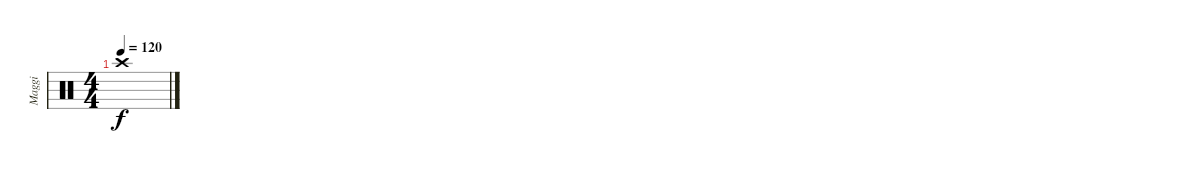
\track ("Maggi" "Maggi") {instrument percussion}
\staff {score}
\articulation defaults
\ts (4 4)
\tempo 120
\clef neutral
\ks c "Crash high (hit)".1{dy f}
